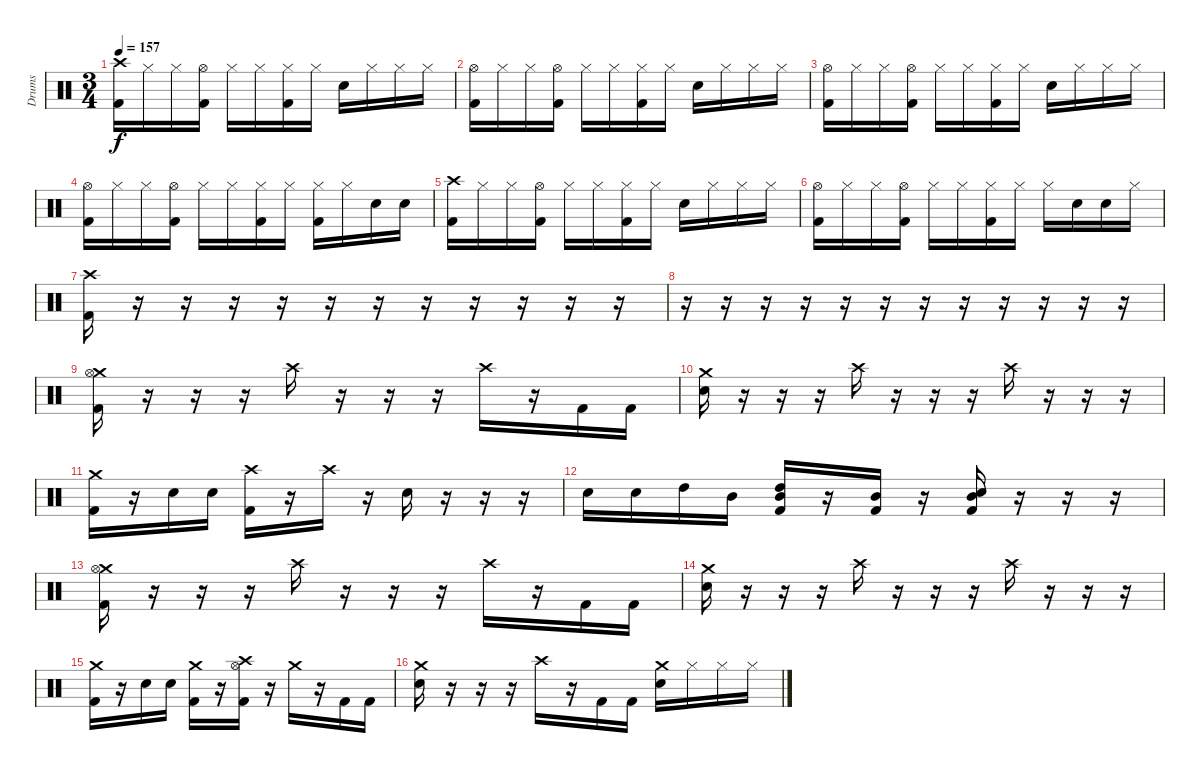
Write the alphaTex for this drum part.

\track ("Drums" "Drums") {instrument percussion}
\staff {score}
\articulation defaults
\ts (3 4)
\tempo 157
\clef neutral
\ks c
("Crash high (hit)" "Kick (hit) 2").16{dy f} "Hi-Hat (closed)".16 "Hi-Hat (closed)".16 ("Hi-Hat (open)" "Kick (hit) 2").16 "Hi-Hat (closed)".16 "Hi-Hat (closed)".16 ("Hi-Hat (closed)" "Kick (hit) 2").16 "Hi-Hat (closed)".16 "Snare (hit) 2".16 "Hi-Hat (closed)".16 "Hi-Hat (closed)".16 "Hi-Hat (closed)".16 |
("Hi-Hat (open)" "Kick (hit) 2").16 "Hi-Hat (closed)".16 "Hi-Hat (closed)".16 ("Hi-Hat (open)" "Kick (hit) 2").16 "Hi-Hat (closed)".16 "Hi-Hat (closed)".16 ("Hi-Hat (closed)" "Kick (hit) 2").16 "Hi-Hat (closed)".16 "Snare (hit) 2".16 "Hi-Hat (closed)".16 "Hi-Hat (closed)".16 "Hi-Hat (closed)".16 |
("Hi-Hat (open)" "Kick (hit) 2").16 "Hi-Hat (closed)".16 "Hi-Hat (closed)".16 ("Hi-Hat (open)" "Kick (hit) 2").16 "Hi-Hat (closed)".16 "Hi-Hat (closed)".16 ("Hi-Hat (closed)" "Kick (hit) 2").16 "Hi-Hat (closed)".16 "Snare (hit) 2".16 "Hi-Hat (closed)".16 "Hi-Hat (closed)".16 "Hi-Hat (closed)".16 |
("Hi-Hat (open)" "Kick (hit) 2").16 "Hi-Hat (closed)".16 "Hi-Hat (closed)".16 ("Hi-Hat (open)" "Kick (hit) 2").16 "Hi-Hat (closed)".16 "Hi-Hat (closed)".16 ("Hi-Hat (closed)" "Kick (hit) 2").16 "Hi-Hat (closed)".16 ("Hi-Hat (closed)" "Kick (hit) 2").16 "Hi-Hat (closed)".16 "Snare (hit) 2".16 "Snare (hit) 2".16 |
("Crash high (hit)" "Kick (hit) 2").16 "Hi-Hat (closed)".16 "Hi-Hat (closed)".16 ("Hi-Hat (open)" "Kick (hit) 2").16 "Hi-Hat (closed)".16 "Hi-Hat (closed)".16 ("Hi-Hat (closed)" "Kick (hit) 2").16 "Hi-Hat (closed)".16 "Snare (hit) 2".16 "Hi-Hat (closed)".16 "Hi-Hat (closed)".16 "Hi-Hat (closed)".16 |
("Hi-Hat (open)" "Kick (hit) 2").16 "Hi-Hat (closed)".16 "Hi-Hat (closed)".16 ("Hi-Hat (open)" "Kick (hit) 2").16 "Hi-Hat (closed)".16 "Hi-Hat (closed)".16 ("Hi-Hat (closed)" "Kick (hit) 2").16 "Hi-Hat (closed)".16 "Hi-Hat (closed)".16 "Snare (hit) 2".16 "Snare (hit) 2".16 "Hi-Hat (closed)".16 |
("Crash high (hit)" "Kick (hit) 2").16 r.16 r.16 r.16 r.16 r.16 r.16 r.16 r.16 r.16 r.16 r.16 |
r.16 r.16 r.16 r.16 r.16 r.16 r.16 r.16 r.16 r.16 r.16 r.16 |
("Crash medium (hit)" "Hi-Hat (open)" "Kick (hit) 2").16 r.16 r.16 r.16 "Crash high (hit)".16 r.16 r.16 r.16 "Crash high (hit)".16 r.16 "Kick (hit) 2".16 "Kick (hit) 2".16 |
("Crash medium (hit)" "Snare (hit) 2").16 r.16 r.16 r.16 "Crash high (hit)".16 r.16 r.16 r.16 "Crash high (hit)".16 r.16 r.16 r.16 |
("Crash medium (hit)" "Kick (hit) 2").16 r.16 "Snare (hit) 2".16 "Snare (hit) 2".16 ("Crash high (hit)" "Kick (hit) 2").16 r.16 "Crash high (hit)".16 r.16 "Snare (hit) 2".16 r.16 r.16 r.16 |
"Snare (hit) 2".16 "Snare (hit) 2".16 "High Tom (hit)".16 "Mid Tom (hit)".16 ("High Tom (hit)" "Mid Tom (hit)" "Kick (hit) 2").16 r.16 ("Mid Tom (hit)" "Kick (hit) 2").16 r.16 ("Mid Tom (hit)" "Snare (hit) 2" "Kick (hit) 2").16 r.16 r.16 r.16 |
("Crash medium (hit)" "Hi-Hat (open)" "Kick (hit) 2").16 r.16 r.16 r.16 "Crash high (hit)".16 r.16 r.16 r.16 "Crash high (hit)".16 r.16 "Kick (hit) 2".16 "Kick (hit) 2".16 |
("Crash medium (hit)" "Snare (hit) 2").16 r.16 r.16 r.16 "Crash high (hit)".16 r.16 r.16 r.16 "Crash high (hit)".16 r.16 r.16 r.16 |
("Crash medium (hit)" "Kick (hit) 2").16 r.16 "Snare (hit) 2".16 "Snare (hit) 2".16 ("Crash medium (hit)" "Kick (hit) 2").16 r.16 ("Crash high (hit)" "Hi-Hat (open)" "Kick (hit) 2").16 r.16 "Crash medium (hit)".16 r.16 "Kick (hit) 2".16 "Kick (hit) 2".16 |
("Crash medium (hit)" "Snare (hit) 2").16 r.16 r.16 r.16 "Crash high (hit)".16 r.16 "Kick (hit) 2".16 "Kick (hit) 2".16 ("Crash medium (hit)" "Snare (hit) 2").16 "Hi-Hat (closed)".16 "Hi-Hat (closed)".16 "Hi-Hat (closed)".16
